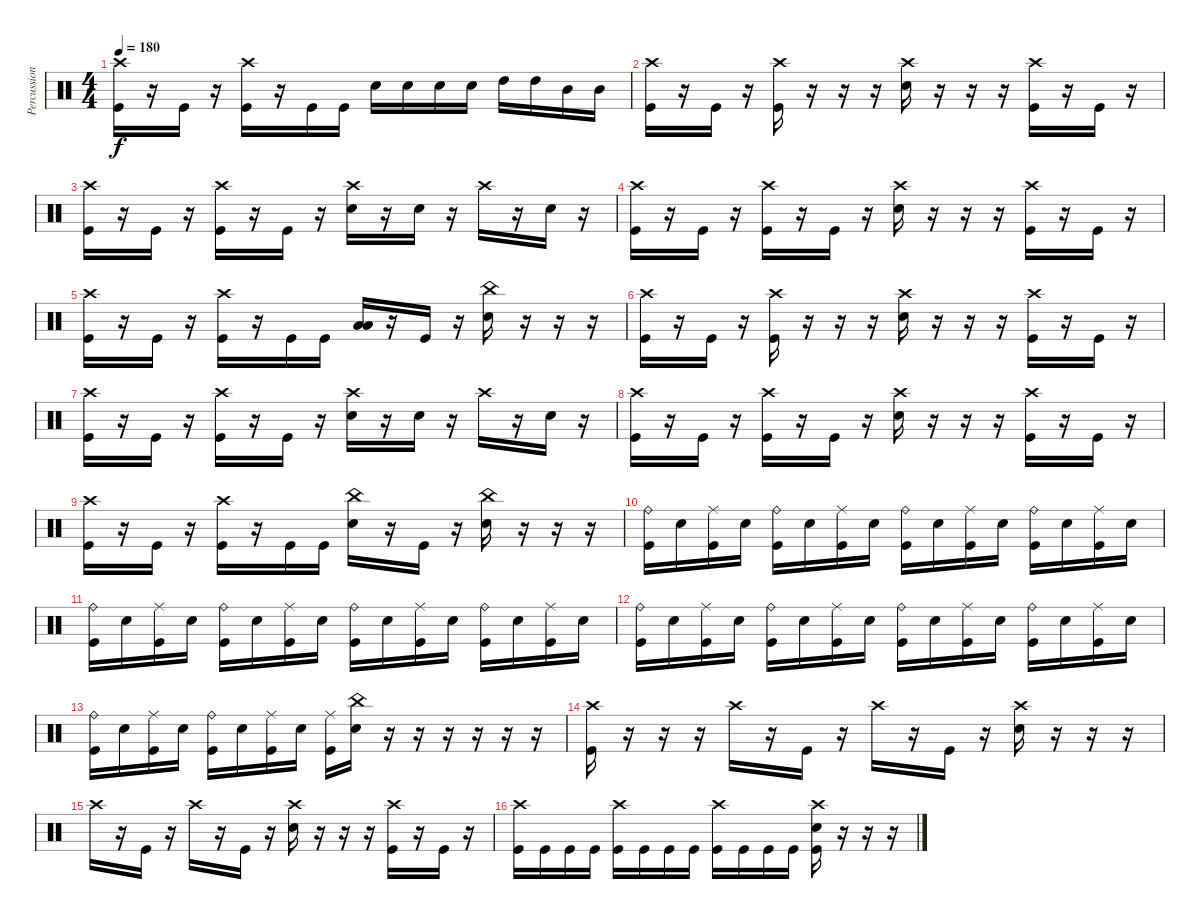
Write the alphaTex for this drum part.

\track ("Percussion" "Percussion") {instrument percussion}
\staff {score}
\articulation defaults
\ts (4 4)
\tempo 180
\clef neutral
\ks c
("Crash high (hit)" "Kick (hit)").16{dy f} r.16 "Kick (hit)".16 r.16 ("Crash high (hit)" "Kick (hit)").16 r.16 "Kick (hit)".16 "Kick (hit)".16 "Electric Snare (hit)".16 "Electric Snare (hit)".16 "Electric Snare (hit)".16 "Electric Snare (hit)".16 "High Tom (hit)".16 "High Tom (hit)".16 "Mid Tom (hit)".16 "Mid Tom (hit)".16 |
("Crash high (hit)" "Kick (hit)").16 r.16 "Kick (hit)".16 r.16 ("Crash high (hit)" "Kick (hit)").16 r.16 r.16 r.16 ("Crash high (hit)" "Electric Snare (hit)").16 r.16 r.16 r.16 ("Crash high (hit)" "Kick (hit)").16 r.16 "Kick (hit)".16 r.16 |
("Crash high (hit)" "Kick (hit)").16 r.16 "Kick (hit)".16 r.16 ("Crash high (hit)" "Kick (hit)").16 r.16 "Kick (hit)".16 r.16 ("Crash high (hit)" "Electric Snare (hit)").16 r.16 "Electric Snare (hit)".16 r.16 "Crash high (hit)".16 r.16 "Electric Snare (hit)".16 r.16 |
("Crash high (hit)" "Kick (hit)").16 r.16 "Kick (hit)".16 r.16 ("Crash high (hit)" "Kick (hit)").16 r.16 "Kick (hit)".16 r.16 ("Crash high (hit)" "Electric Snare (hit)").16 r.16 r.16 r.16 ("Crash high (hit)" "Kick (hit)").16 r.16 "Kick (hit)".16 r.16 |
("Crash high (hit)" "Kick (hit)").16 r.16 "Kick (hit)".16 r.16 ("Crash high (hit)" "Kick (hit)").16 r.16 "Kick (hit)".16 "Kick (hit)".16 ("Low Tom (hit)" "Low Floor Tom (hit)").16 r.16 "Kick (hit)".16 r.16 ("China (hit)" "Electric Snare (hit)").16 r.16 r.16 r.16 |
("Crash high (hit)" "Kick (hit)").16 r.16 "Kick (hit)".16 r.16 ("Crash high (hit)" "Kick (hit)").16 r.16 r.16 r.16 ("Crash high (hit)" "Electric Snare (hit)").16 r.16 r.16 r.16 ("Crash high (hit)" "Kick (hit)").16 r.16 "Kick (hit)".16 r.16 |
("Crash high (hit)" "Kick (hit)").16 r.16 "Kick (hit)".16 r.16 ("Crash high (hit)" "Kick (hit)").16 r.16 "Kick (hit)".16 r.16 ("Crash high (hit)" "Electric Snare (hit)").16 r.16 "Electric Snare (hit)".16 r.16 "Crash high (hit)".16 r.16 "Electric Snare (hit)".16 r.16 |
("Crash high (hit)" "Kick (hit)").16 r.16 "Kick (hit)".16 r.16 ("Crash high (hit)" "Kick (hit)").16 r.16 "Kick (hit)".16 r.16 ("Crash high (hit)" "Electric Snare (hit)").16 r.16 r.16 r.16 ("Crash high (hit)" "Kick (hit)").16 r.16 "Kick (hit)".16 r.16 |
("Crash high (hit)" "Kick (hit)").16 r.16 "Kick (hit)".16 r.16 ("Crash high (hit)" "Kick (hit)").16 r.16 "Kick (hit)".16 "Kick (hit)".16 ("China (hit)" "Electric Snare (hit)").16 r.16 "Kick (hit)".16 r.16 ("China (hit)" "Electric Snare (hit)").16 r.16 r.16 r.16 |
("Ride (bell)" "Kick (hit)").16 "Electric Snare (hit)".16 ("Ride (middle)" "Kick (hit)").16 "Electric Snare (hit)".16 ("Ride (bell)" "Kick (hit)").16 "Electric Snare (hit)".16 ("Ride (middle)" "Kick (hit)").16 "Electric Snare (hit)".16 ("Ride (bell)" "Kick (hit)").16 "Electric Snare (hit)".16 ("Ride (middle)" "Kick (hit)").16 "Electric Snare (hit)".16 ("Ride (bell)" "Kick (hit)").16 "Electric Snare (hit)".16 ("Ride (middle)" "Kick (hit)").16 "Electric Snare (hit)".16 |
("Ride (bell)" "Kick (hit)").16 "Electric Snare (hit)".16 ("Ride (middle)" "Kick (hit)").16 "Electric Snare (hit)".16 ("Ride (bell)" "Kick (hit)").16 "Electric Snare (hit)".16 ("Ride (middle)" "Kick (hit)").16 "Electric Snare (hit)".16 ("Ride (bell)" "Kick (hit)").16 "Electric Snare (hit)".16 ("Ride (middle)" "Kick (hit)").16 "Electric Snare (hit)".16 ("Ride (bell)" "Kick (hit)").16 "Electric Snare (hit)".16 ("Ride (middle)" "Kick (hit)").16 "Electric Snare (hit)".16 |
("Ride (bell)" "Kick (hit)").16 "Electric Snare (hit)".16 ("Ride (middle)" "Kick (hit)").16 "Electric Snare (hit)".16 ("Ride (bell)" "Kick (hit)").16 "Electric Snare (hit)".16 ("Ride (middle)" "Kick (hit)").16 "Electric Snare (hit)".16 ("Ride (bell)" "Kick (hit)").16 "Electric Snare (hit)".16 ("Ride (middle)" "Kick (hit)").16 "Electric Snare (hit)".16 ("Ride (bell)" "Kick (hit)").16 "Electric Snare (hit)".16 ("Ride (middle)" "Kick (hit)").16 "Electric Snare (hit)".16 |
("Ride (bell)" "Kick (hit)").16 "Electric Snare (hit)".16 ("Ride (middle)" "Kick (hit)").16 "Electric Snare (hit)".16 ("Ride (bell)" "Kick (hit)").16 "Electric Snare (hit)".16 ("Ride (middle)" "Kick (hit)").16 "Electric Snare (hit)".16 ("Ride (middle)" "Kick (hit)").16 ("China (hit)" "Electric Snare (hit)").16 r.16 r.16 r.16 r.16 r.16 r.16 |
("Crash high (hit)" "Kick (hit)").16 r.16 r.16 r.16 "Crash high (hit)".16 r.16 "Kick (hit)".16 r.16 "Crash high (hit)".16 r.16 "Kick (hit)".16 r.16 ("Crash high (hit)" "Electric Snare (hit)").16 r.16 r.16 r.16 |
"Crash high (hit)".16 r.16 "Kick (hit)".16 r.16 "Crash high (hit)".16 r.16 "Kick (hit)".16 r.16 ("Crash high (hit)" "Electric Snare (hit)").16 r.16 r.16 r.16 ("Crash high (hit)" "Kick (hit)").16 r.16 "Kick (hit)".16 r.16 |
("Crash high (hit)" "Kick (hit)").16 "Kick (hit)".16 "Kick (hit)".16 "Kick (hit)".16 ("Crash high (hit)" "Kick (hit)").16 "Kick (hit)".16 "Kick (hit)".16 "Kick (hit)".16 ("Crash high (hit)" "Kick (hit)").16 "Kick (hit)".16 "Kick (hit)".16 "Kick (hit)".16 ("Crash high (hit)" "Electric Snare (hit)" "Kick (hit)").16 r.16 r.16 r.16
